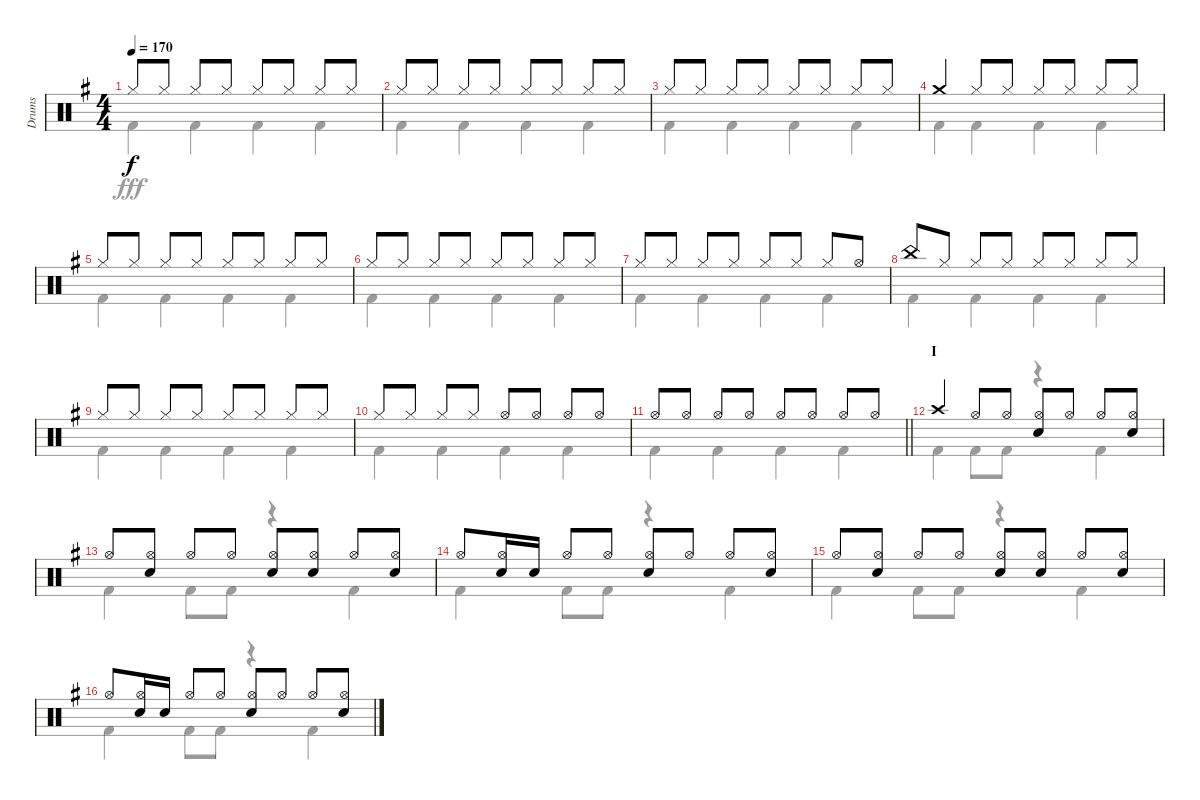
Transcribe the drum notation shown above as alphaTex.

\track ("Drums" "Drums") {instrument percussion}
\staff {score}
\articulation defaults
\voice
\ts (4 4)
\tempo 170
\clef neutral
\ks g "Hi-Hat (closed)".8{dy f} "Hi-Hat (closed)".8 "Hi-Hat (closed)".8 "Hi-Hat (closed)".8 "Hi-Hat (closed)".8 "Hi-Hat (closed)".8 "Hi-Hat (closed)".8 "Hi-Hat (closed)".8
|
"Hi-Hat (closed)".8 "Hi-Hat (closed)".8 "Hi-Hat (closed)".8 "Hi-Hat (closed)".8 "Hi-Hat (closed)".8 "Hi-Hat (closed)".8 "Hi-Hat (closed)".8 "Hi-Hat (closed)".8 |
"Hi-Hat (closed)".8 "Hi-Hat (closed)".8 "Hi-Hat (closed)".8 "Hi-Hat (closed)".8 "Hi-Hat (closed)".8 "Hi-Hat (closed)".8 "Hi-Hat (closed)".8 "Hi-Hat (closed)".8 |
"Crash medium (hit)".4 "Hi-Hat (closed)".8 "Hi-Hat (closed)".8 "Hi-Hat (closed)".8 "Hi-Hat (closed)".8 "Hi-Hat (closed)".8 "Hi-Hat (closed)".8 |
"Hi-Hat (closed)".8 "Hi-Hat (closed)".8 "Hi-Hat (closed)".8 "Hi-Hat (closed)".8 "Hi-Hat (closed)".8 "Hi-Hat (closed)".8 "Hi-Hat (closed)".8 "Hi-Hat (closed)".8 |
"Hi-Hat (closed)".8 "Hi-Hat (closed)".8 "Hi-Hat (closed)".8 "Hi-Hat (closed)".8 "Hi-Hat (closed)".8 "Hi-Hat (closed)".8 "Hi-Hat (closed)".8 "Hi-Hat (closed)".8 |
"Hi-Hat (closed)".8 "Hi-Hat (closed)".8 "Hi-Hat (closed)".8 "Hi-Hat (closed)".8 "Hi-Hat (closed)".8 "Hi-Hat (closed)".8 "Hi-Hat (closed)".8 "Hi-Hat (open)".8 |
"China (hit)".8 "Hi-Hat (closed)".8 "Hi-Hat (closed)".8 "Hi-Hat (closed)".8 "Hi-Hat (closed)".8 "Hi-Hat (closed)".8 "Hi-Hat (closed)".8 "Hi-Hat (closed)".8 |
"Hi-Hat (closed)".8 "Hi-Hat (closed)".8 "Hi-Hat (closed)".8 "Hi-Hat (closed)".8 "Hi-Hat (closed)".8 "Hi-Hat (closed)".8 "Hi-Hat (closed)".8 "Hi-Hat (closed)".8 |
"Hi-Hat (closed)".8 "Hi-Hat (closed)".8 "Hi-Hat (closed)".8 "Hi-Hat (closed)".8 "Hi-Hat (open)".8 "Hi-Hat (open)".8 "Hi-Hat (open)".8 "Hi-Hat (open)".8 |
\barLineRight lightlight "Hi-Hat (open)".8 "Hi-Hat (open)".8 "Hi-Hat (open)".8 "Hi-Hat (open)".8 "Hi-Hat (open)".8 "Hi-Hat (open)".8 "Hi-Hat (open)".8 "Hi-Hat (open)".8
|
\section ("" "I")
"Crash high (hit)".4 "Hi-Hat (open)".8 "Hi-Hat (open)".8 ("Hi-Hat (open)" "Snare (hit) 2").8 "Hi-Hat (open)".8 "Hi-Hat (open)".8 ("Hi-Hat (open)" "Snare (hit) 2").8 |
"Hi-Hat (open)".8 ("Hi-Hat (open)" "Snare (hit) 2").8 "Hi-Hat (open)".8 "Hi-Hat (open)".8 ("Hi-Hat (open)" "Snare (hit) 2").8 ("Hi-Hat (open)" "Snare (hit) 2").8 "Hi-Hat (open)".8 ("Hi-Hat (open)" "Snare (hit) 2").8 |
"Hi-Hat (open)".8 ("Hi-Hat (open)" "Snare (hit) 2").16 "Snare (hit) 2".16 "Hi-Hat (open)".8 "Hi-Hat (open)".8 ("Hi-Hat (open)" "Snare (hit) 2").8 "Hi-Hat (open)".8 "Hi-Hat (open)".8 ("Hi-Hat (open)" "Snare (hit) 2").8 |
"Hi-Hat (open)".8 ("Hi-Hat (open)" "Snare (hit) 2").8 "Hi-Hat (open)".8 "Hi-Hat (open)".8 ("Hi-Hat (open)" "Snare (hit) 2").8 ("Hi-Hat (open)" "Snare (hit) 2").8 "Hi-Hat (open)".8 ("Hi-Hat (open)" "Snare (hit) 2").8 |
"Hi-Hat (open)".8 ("Hi-Hat (open)" "Snare (hit) 2").16 "Snare (hit) 2".16 "Hi-Hat (open)".8 "Hi-Hat (open)".8 ("Hi-Hat (open)" "Snare (hit) 2").8 "Hi-Hat (open)".8 "Hi-Hat (open)".8 ("Hi-Hat (open)" "Snare (hit) 2").8
\voice
\clef neutral
\ottava regular
\simile none
\ks g "Kick (hit) 2".4{dy fff} "Kick (hit) 2".4 "Kick (hit) 2".4 "Kick (hit) 2".4
|
"Kick (hit) 2".4 "Kick (hit) 2".4 "Kick (hit) 2".4 "Kick (hit) 2".4 |
"Kick (hit) 2".4 "Kick (hit) 2".4 "Kick (hit) 2".4 "Kick (hit) 2".4 |
"Kick (hit) 2".4 "Kick (hit) 2".4 "Kick (hit) 2".4 "Kick (hit) 2".4 |
"Kick (hit) 2".4 "Kick (hit) 2".4 "Kick (hit) 2".4 "Kick (hit) 2".4 |
"Kick (hit) 2".4 "Kick (hit) 2".4 "Kick (hit) 2".4 "Kick (hit) 2".4 |
"Kick (hit) 2".4 "Kick (hit) 2".4 "Kick (hit) 2".4 "Kick (hit) 2".4 |
"Kick (hit) 2".4 "Kick (hit) 2".4 "Kick (hit) 2".4 "Kick (hit) 2".4 |
"Kick (hit) 2".4 "Kick (hit) 2".4 "Kick (hit) 2".4 "Kick (hit) 2".4 |
"Kick (hit) 2".4 "Kick (hit) 2".4 "Kick (hit) 2".4 "Kick (hit) 2".4 |
\barLineRight lightlight "Kick (hit) 2".4 "Kick (hit) 2".4 "Kick (hit) 2".4 "Kick (hit) 2".4
|
"Kick (hit) 2".4 "Kick (hit) 2".8 "Kick (hit) 2".8 r.4 "Kick (hit) 2".4 |
"Kick (hit) 2".4 "Kick (hit) 2".8 "Kick (hit) 2".8 r.4 "Kick (hit) 2".4 |
"Kick (hit) 2".4 "Kick (hit) 2".8 "Kick (hit) 2".8 r.4 "Kick (hit) 2".4 |
"Kick (hit) 2".4 "Kick (hit) 2".8 "Kick (hit) 2".8 r.4 "Kick (hit) 2".4 |
"Kick (hit) 2".4 "Kick (hit) 2".8 "Kick (hit) 2".8 r.4 "Kick (hit) 2".4
